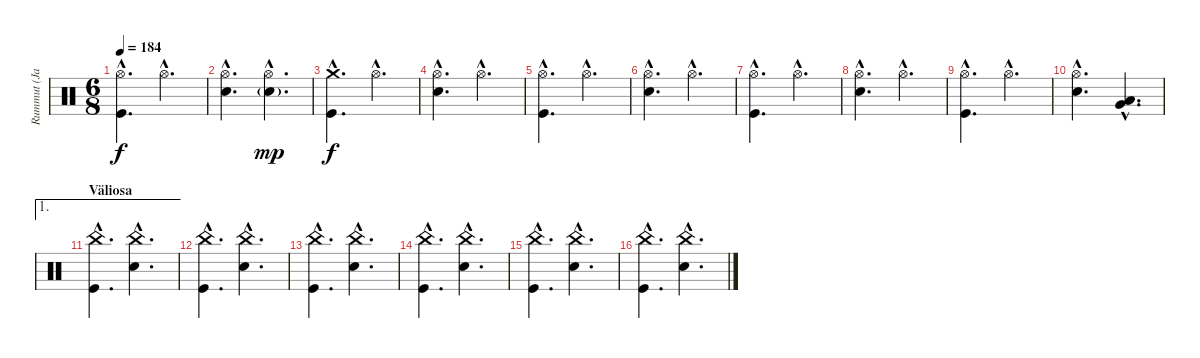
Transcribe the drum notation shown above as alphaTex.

\track ("Rummut (Janne)" "Rummut (Ja") {instrument percussion}
\staff {score}
\articulation defaults
\ts (6 8)
\tempo 184
\clef neutral
\ks c
("Hi-Hat (open)"{hac} "Kick (hit)"{hac}).4{d dy f} "Hi-Hat (open)"{hac}.4{d} |
("Hi-Hat (open)"{hac} "Snare (hit) 2"{hac}).4{d} ("Hi-Hat (open)"{hac} "Snare (hit) 2"{g hac}).4{d dy mp} |
("Crash medium (hit)"{hac} "Kick (hit)"{hac}).4{d dy f} "Hi-Hat (open)"{hac}.4{d} |
("Hi-Hat (open)"{hac} "Snare (hit) 2"{hac}).4{d} "Hi-Hat (open)"{hac}.4{d} |
("Hi-Hat (open)"{hac} "Kick (hit)"{hac}).4{d} "Hi-Hat (open)"{hac}.4{d} |
("Hi-Hat (open)"{hac} "Snare (hit) 2"{hac}).4{d} "Hi-Hat (open)"{hac}.4{d} |
("Hi-Hat (open)"{hac} "Kick (hit)"{hac}).4{d} "Hi-Hat (open)"{hac}.4{d} |
("Hi-Hat (open)"{hac} "Snare (hit) 2"{hac}).4{d} "Hi-Hat (open)"{hac}.4{d} |
("Hi-Hat (open)"{hac} "Kick (hit)"{hac}).4{d} "Hi-Hat (open)"{hac}.4{d} |
("Hi-Hat (open)"{hac} "Snare (hit) 2"{hac}).4{d} ("Low Tom (hit)"{hac} "Very Low Tom (hit)"{hac}).4{d} |
\ae 1
\section ("" "Väliosa")
("China (hit)"{hac} "Kick (hit)"{hac}).4{d} ("China (hit)"{hac} "Snare (hit) 2"{hac}).4{d} |
("China (hit)"{hac} "Kick (hit)"{hac}).4{d} ("China (hit)"{hac} "Snare (hit) 2"{hac}).4{d} |
("China (hit)"{hac} "Kick (hit)"{hac}).4{d} ("China (hit)"{hac} "Snare (hit) 2"{hac}).4{d} |
("China (hit)"{hac} "Kick (hit)"{hac}).4{d} ("China (hit)"{hac} "Snare (hit) 2"{hac}).4{d} |
("China (hit)"{hac} "Kick (hit)"{hac}).4{d} ("China (hit)"{hac} "Snare (hit) 2"{hac}).4{d} |
("China (hit)"{hac} "Kick (hit)"{hac}).4{d} ("China (hit)"{hac} "Snare (hit) 2"{hac}).4{d}
